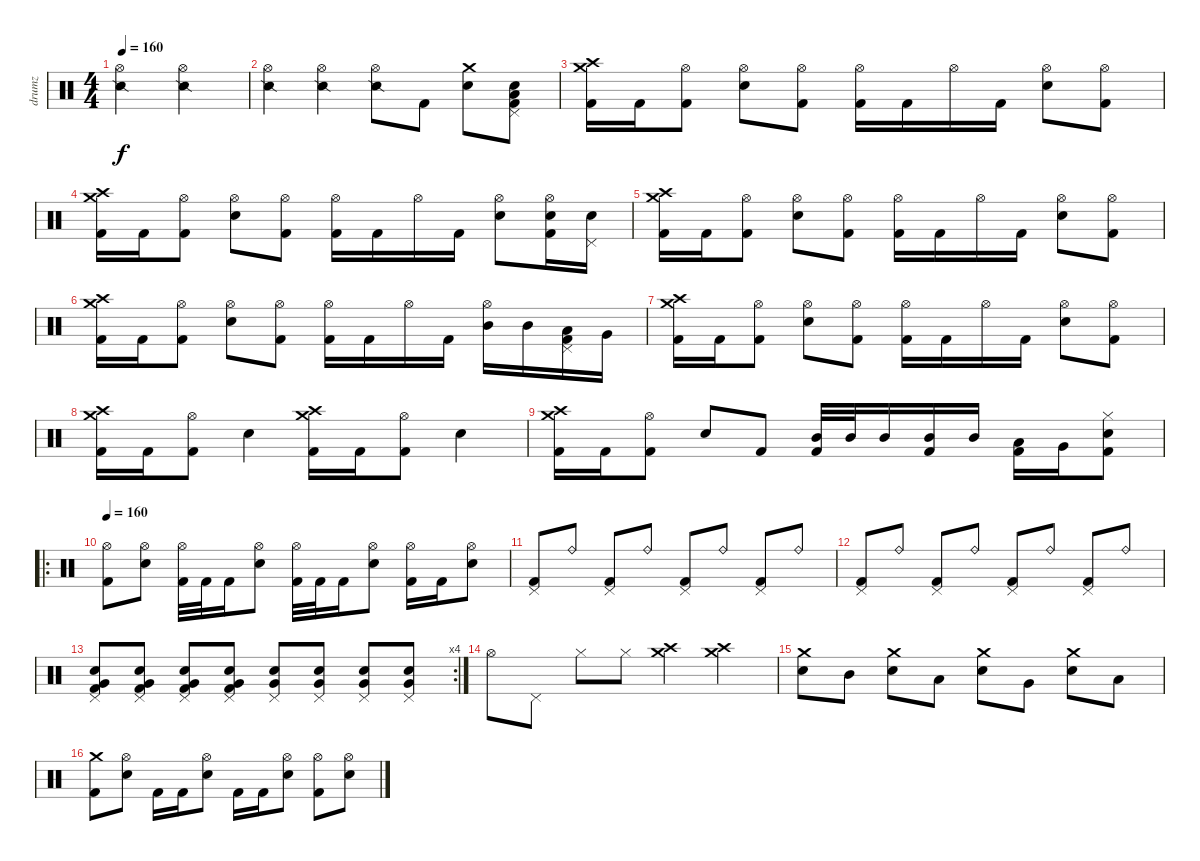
\track ("drumz" "drumz") {instrument percussion}
\staff {score}
\articulation defaults
\ts (4 4)
\tempo 160
\tempo 102
\tempo 160
\clef neutral
\ks c
("Hi-Hat (open)" "Snare (side stick) 2").2{dy f} ("Hi-Hat (open)" "Snare (side stick) 2").2 |
("Hi-Hat (open)" "Snare (side stick) 2").4 ("Hi-Hat (open)" "Snare (side stick) 2").4 ("Hi-Hat (open)" "Snare (side stick) 2").8 "Kick (hit) 2".8 ("Crash medium (hit)" "Snare (hit) 2").8 ("Pedal Hi-Hat (hit)" "Low Tom (hit)" "Snare (hit) 2" "Kick (hit) 2").8 |
("Crash medium (hit)" "Crash high (hit)" "Kick (hit) 2").16 "Kick (hit) 2".16 ("Hi-Hat (open)" "Kick (hit) 2").8 ("Hi-Hat (open)" "Snare (hit) 2").8 ("Hi-Hat (open)" "Kick (hit) 2").8 ("Hi-Hat (open)" "Kick (hit) 2").16 "Kick (hit) 2".16 "Hi-Hat (open)".16 "Kick (hit) 2".16 ("Hi-Hat (open)" "Snare (hit) 2").8 ("Hi-Hat (open)" "Kick (hit) 2").8 |
("Crash medium (hit)" "Crash high (hit)" "Kick (hit) 2").16 "Kick (hit) 2".16 ("Hi-Hat (open)" "Kick (hit) 2").8 ("Hi-Hat (open)" "Snare (hit) 2").8 ("Hi-Hat (open)" "Kick (hit) 2").8 ("Hi-Hat (open)" "Kick (hit) 2").16 "Kick (hit) 2".16 "Hi-Hat (open)".16 "Kick (hit) 2".16 ("Hi-Hat (open)" "Snare (hit) 2").8 ("Hi-Hat (open)" "Snare (hit) 2" "Kick (hit) 2").16 ("Pedal Hi-Hat (hit)" "Snare (hit) 2").16 |
("Crash medium (hit)" "Crash high (hit)" "Kick (hit) 2").16 "Kick (hit) 2".16 ("Hi-Hat (open)" "Kick (hit) 2").8 ("Hi-Hat (open)" "Snare (hit) 2").8 ("Hi-Hat (open)" "Kick (hit) 2").8 ("Hi-Hat (open)" "Kick (hit) 2").16 "Kick (hit) 2".16 "Hi-Hat (open)".16 "Kick (hit) 2".16 ("Hi-Hat (open)" "Snare (hit) 2").8 ("Hi-Hat (open)" "Kick (hit) 2").8 |
("Crash medium (hit)" "Crash high (hit)" "Kick (hit) 2").16 "Kick (hit) 2".16 ("Hi-Hat (open)" "Kick (hit) 2").8 ("Hi-Hat (open)" "Snare (hit) 2").8 ("Hi-Hat (open)" "Kick (hit) 2").8 ("Hi-Hat (open)" "Kick (hit) 2").16 "Kick (hit) 2".16 "Hi-Hat (open)".16 "Kick (hit) 2".16 ("Hi-Hat (open)" "Mid Tom (hit)").16 "Mid Tom (hit)".16 ("Pedal Hi-Hat (hit)" "Low Tom (hit)" "Kick (hit) 2").16 "Very Low Tom (hit)".16 |
("Crash medium (hit)" "Crash high (hit)" "Kick (hit) 2").16 "Kick (hit) 2".16 ("Hi-Hat (open)" "Kick (hit) 2").8 ("Hi-Hat (open)" "Snare (hit) 2").8 ("Hi-Hat (open)" "Kick (hit) 2").8 ("Hi-Hat (open)" "Kick (hit) 2").16 "Kick (hit) 2".16 "Hi-Hat (open)".16 "Kick (hit) 2".16 ("Hi-Hat (open)" "Snare (hit) 2").8 ("Hi-Hat (open)" "Kick (hit) 2").8 |
("Crash medium (hit)" "Crash high (hit)" "Kick (hit) 2").16 "Kick (hit) 2".16 ("Hi-Hat (open)" "Kick (hit) 2").8 "Snare (hit) 2".4 ("Crash medium (hit)" "Crash high (hit)" "Kick (hit) 2").16 "Kick (hit) 2".16 ("Hi-Hat (open)" "Kick (hit) 2").8 "Snare (hit) 2".4 |
("Crash medium (hit)" "Crash high (hit)" "Kick (hit) 2").16 "Kick (hit) 2".16 ("Hi-Hat (open)" "Kick (hit) 2").8 "Snare (hit) 2".8 "Kick (hit) 2".8 ("Mid Tom (hit)" "Kick (hit) 2").32 "Mid Tom (hit)".32 "Mid Tom (hit)".16 ("Mid Tom (hit)" "Kick (hit) 2").16 "Mid Tom (hit)".16 ("Low Tom (hit)" "Kick (hit) 2").16 "Very Low Tom (hit)".16 ("Hi-Hat (closed)" "Snare (hit) 2" "Kick (hit) 2").8 |
\ro
\tempo 160
("Hi-Hat (open)" "Kick (hit) 2").8 ("Hi-Hat (open)" "Snare (hit) 2").8 ("Hi-Hat (open)" "Kick (hit) 2").32 "Kick (hit) 2".32 "Kick (hit) 2".16 ("Hi-Hat (open)" "Snare (hit) 2").8 ("Hi-Hat (open)" "Kick (hit) 2").32 "Kick (hit) 2".32 "Kick (hit) 2".16 ("Hi-Hat (open)" "Snare (hit) 2").8 ("Hi-Hat (open)" "Kick (hit) 2").16 "Kick (hit) 2".16 ("Hi-Hat (open)" "Snare (hit) 2").8 |
("Pedal Hi-Hat (hit)" "Kick (hit) 2").8 "Ride (bell)".8 ("Pedal Hi-Hat (hit)" "Kick (hit) 2").8 "Ride (bell)".8 ("Pedal Hi-Hat (hit)" "Kick (hit) 2").8 "Ride (bell)".8 ("Pedal Hi-Hat (hit)" "Kick (hit) 2").8 "Ride (bell)".8 |
("Pedal Hi-Hat (hit)" "Kick (hit) 2").8 "Ride (bell)".8 ("Pedal Hi-Hat (hit)" "Kick (hit) 2").8 "Ride (bell)".8 ("Pedal Hi-Hat (hit)" "Kick (hit) 2").8 "Ride (bell)".8 ("Pedal Hi-Hat (hit)" "Kick (hit) 2").8 "Ride (bell)".8 |
\rc 4
("Pedal Hi-Hat (hit)" "Snare (hit) 2" "Very Low Tom (hit)" "Kick (hit) 2").8 ("Pedal Hi-Hat (hit)" "Snare (hit) 2" "Very Low Tom (hit)" "Kick (hit) 2").8 ("Pedal Hi-Hat (hit)" "Snare (hit) 2" "Very Low Tom (hit)" "Kick (hit) 2").8 ("Pedal Hi-Hat (hit)" "Snare (hit) 2" "Very Low Tom (hit)" "Kick (hit) 2").8 ("Pedal Hi-Hat (hit)" "Snare (hit) 2" "Very Low Tom (hit)").8 ("Pedal Hi-Hat (hit)" "Snare (hit) 2" "Very Low Tom (hit)").8 ("Pedal Hi-Hat (hit)" "Snare (hit) 2" "Very Low Tom (hit)").8 ("Pedal Hi-Hat (hit)" "Snare (hit) 2" "Very Low Tom (hit)").8 |
"Hi-Hat (open)".8 "Pedal Hi-Hat (hit)".8 "Hi-Hat (closed)".8 "Hi-Hat (closed)".8 ("Crash medium (hit)" "Crash high (hit)").4 ("Crash medium (hit)" "Crash high (hit)").4 |
("Crash medium (hit)" "Snare (hit) 2").8 "Mid Tom (hit)".8 ("Crash medium (hit)" "Snare (hit) 2").8 "Low Tom (hit)".8 ("Crash medium (hit)" "Snare (hit) 2").8 "Very Low Tom (hit)".8 ("Crash medium (hit)" "Snare (hit) 2").8 "Low Floor Tom (hit)".8 |
("Crash medium (hit)" "Kick (hit) 2").8 ("Hi-Hat (open)" "Snare (hit) 2").8 "Kick (hit) 2".16 "Kick (hit) 2".16 ("Hi-Hat (open)" "Snare (hit) 2").8 "Kick (hit) 2".16 "Kick (hit) 2".16 ("Hi-Hat (open)" "Snare (hit) 2").8 ("Hi-Hat (open)" "Kick (hit) 2").8 ("Hi-Hat (open)" "Snare (hit) 2").8
